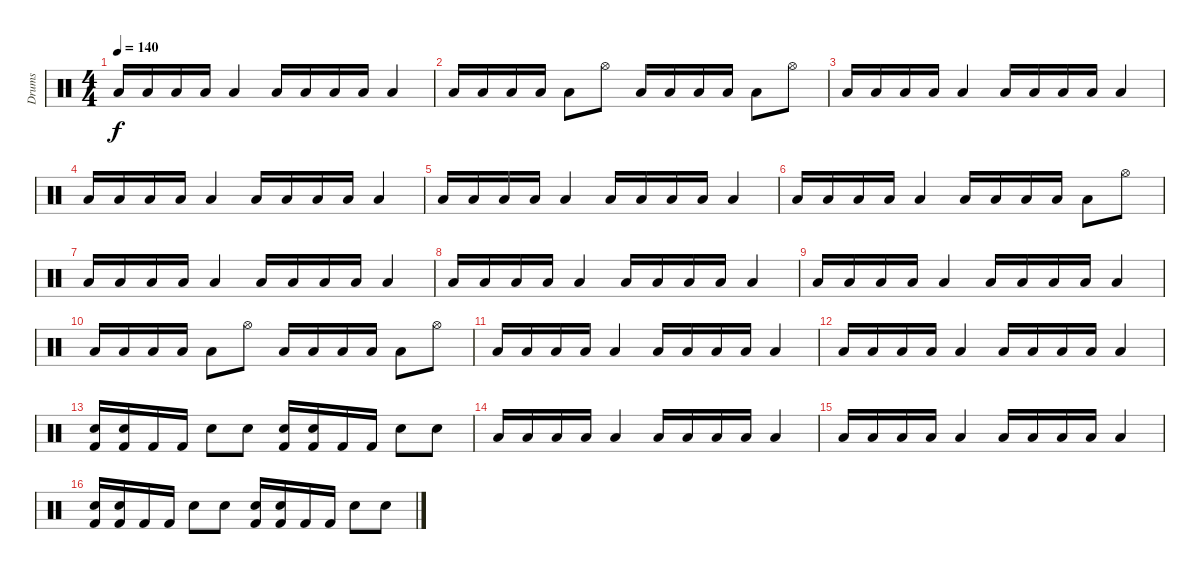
\track ("Drums" "Drums") {instrument percussion}
\staff {score}
\articulation defaults
\ts (4 4)
\tempo 140
\clef neutral
\ks c "Low Tom (hit)".16{dy f} "Low Tom (hit)".16 "Low Tom (hit)".16 "Low Tom (hit)".16 "Low Tom (hit)".4 "Low Tom (hit)".16 "Low Tom (hit)".16 "Low Tom (hit)".16 "Low Tom (hit)".16 "Low Tom (hit)".4
|
"Low Tom (hit)".16 "Low Tom (hit)".16 "Low Tom (hit)".16 "Low Tom (hit)".16 "Low Tom (hit)".8 "Hi-Hat (open)".8 "Low Tom (hit)".16 "Low Tom (hit)".16 "Low Tom (hit)".16 "Low Tom (hit)".16 "Low Tom (hit)".8 "Hi-Hat (open)".8 |
"Low Tom (hit)".16 "Low Tom (hit)".16 "Low Tom (hit)".16 "Low Tom (hit)".16 "Low Tom (hit)".4 "Low Tom (hit)".16 "Low Tom (hit)".16 "Low Tom (hit)".16 "Low Tom (hit)".16 "Low Tom (hit)".4 |
"Low Tom (hit)".16 "Low Tom (hit)".16 "Low Tom (hit)".16 "Low Tom (hit)".16 "Low Tom (hit)".4 "Low Tom (hit)".16 "Low Tom (hit)".16 "Low Tom (hit)".16 "Low Tom (hit)".16 "Low Tom (hit)".4 |
"Low Tom (hit)".16 "Low Tom (hit)".16 "Low Tom (hit)".16 "Low Tom (hit)".16 "Low Tom (hit)".4 "Low Tom (hit)".16 "Low Tom (hit)".16 "Low Tom (hit)".16 "Low Tom (hit)".16 "Low Tom (hit)".4 |
"Low Tom (hit)".16 "Low Tom (hit)".16 "Low Tom (hit)".16 "Low Tom (hit)".16 "Low Tom (hit)".4 "Low Tom (hit)".16 "Low Tom (hit)".16 "Low Tom (hit)".16 "Low Tom (hit)".16 "Low Tom (hit)".8 "Hi-Hat (open)".8 |
"Low Tom (hit)".16 "Low Tom (hit)".16 "Low Tom (hit)".16 "Low Tom (hit)".16 "Low Tom (hit)".4 "Low Tom (hit)".16 "Low Tom (hit)".16 "Low Tom (hit)".16 "Low Tom (hit)".16 "Low Tom (hit)".4 |
"Low Tom (hit)".16 "Low Tom (hit)".16 "Low Tom (hit)".16 "Low Tom (hit)".16 "Low Tom (hit)".4 "Low Tom (hit)".16 "Low Tom (hit)".16 "Low Tom (hit)".16 "Low Tom (hit)".16 "Low Tom (hit)".4 |
"Low Tom (hit)".16 "Low Tom (hit)".16 "Low Tom (hit)".16 "Low Tom (hit)".16 "Low Tom (hit)".4 "Low Tom (hit)".16 "Low Tom (hit)".16 "Low Tom (hit)".16 "Low Tom (hit)".16 "Low Tom (hit)".4 |
"Low Tom (hit)".16 "Low Tom (hit)".16 "Low Tom (hit)".16 "Low Tom (hit)".16 "Low Tom (hit)".8 "Hi-Hat (open)".8 "Low Tom (hit)".16 "Low Tom (hit)".16 "Low Tom (hit)".16 "Low Tom (hit)".16 "Low Tom (hit)".8 "Hi-Hat (open)".8 |
"Low Tom (hit)".16 "Low Tom (hit)".16 "Low Tom (hit)".16 "Low Tom (hit)".16 "Low Tom (hit)".4 "Low Tom (hit)".16 "Low Tom (hit)".16 "Low Tom (hit)".16 "Low Tom (hit)".16 "Low Tom (hit)".4 |
"Low Tom (hit)".16 "Low Tom (hit)".16 "Low Tom (hit)".16 "Low Tom (hit)".16 "Low Tom (hit)".4 "Low Tom (hit)".16 "Low Tom (hit)".16 "Low Tom (hit)".16 "Low Tom (hit)".16 "Low Tom (hit)".4 |
("Electric Snare (hit)" "Kick (hit) 2").16 ("Electric Snare (hit)" "Kick (hit) 2").16 "Kick (hit) 2".16 "Kick (hit) 2".16 "Electric Snare (hit)".8 "Electric Snare (hit)".8 ("Electric Snare (hit)" "Kick (hit) 2").16 ("Electric Snare (hit)" "Kick (hit) 2").16 "Kick (hit) 2".16 "Kick (hit) 2".16 "Electric Snare (hit)".8 "Electric Snare (hit)".8 |
"Low Tom (hit)".16 "Low Tom (hit)".16 "Low Tom (hit)".16 "Low Tom (hit)".16 "Low Tom (hit)".4 "Low Tom (hit)".16 "Low Tom (hit)".16 "Low Tom (hit)".16 "Low Tom (hit)".16 "Low Tom (hit)".4 |
"Low Tom (hit)".16 "Low Tom (hit)".16 "Low Tom (hit)".16 "Low Tom (hit)".16 "Low Tom (hit)".4 "Low Tom (hit)".16 "Low Tom (hit)".16 "Low Tom (hit)".16 "Low Tom (hit)".16 "Low Tom (hit)".4 |
("Electric Snare (hit)" "Kick (hit) 2").16 ("Electric Snare (hit)" "Kick (hit) 2").16 "Kick (hit) 2".16 "Kick (hit) 2".16 "Electric Snare (hit)".8 "Electric Snare (hit)".8 ("Electric Snare (hit)" "Kick (hit) 2").16 ("Electric Snare (hit)" "Kick (hit) 2").16 "Kick (hit) 2".16 "Kick (hit) 2".16 "Electric Snare (hit)".8 "Electric Snare (hit)".8
